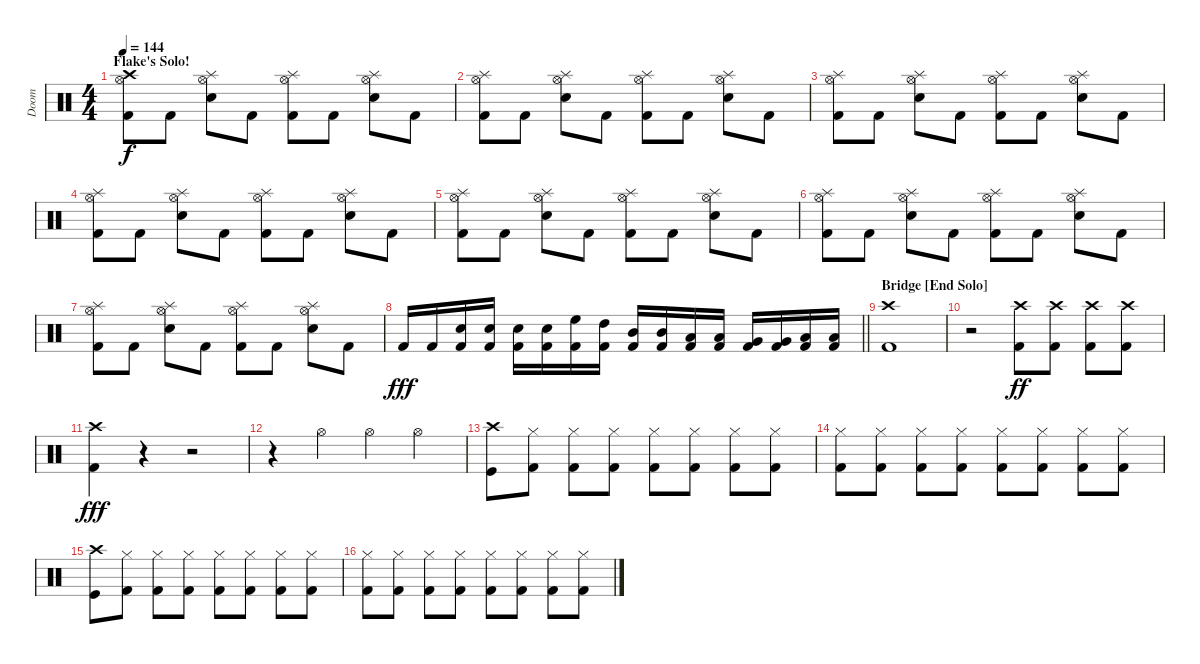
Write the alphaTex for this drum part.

\track ("Doom" "Doom") {instrument percussion}
\staff {score}
\articulation defaults
\ts (4 4)
\section ("" "Flake's Solo!")
\tempo 144
\clef neutral
\ks c
("Kick (hit) 2" "Hi-Hat (open)" "Crash high (hit)").8{dy f} "Kick (hit) 2".8 ("Snare (hit) 2" "Hi-Hat (open)" "Splash (hit)").8 "Kick (hit) 2".8 ("Kick (hit) 2" "Hi-Hat (open)" "Splash (hit)").8 "Kick (hit) 2".8 ("Snare (hit) 2" "Hi-Hat (open)" "Splash (hit)").8 "Kick (hit) 2".8 |
("Kick (hit) 2" "Hi-Hat (open)" "Splash (hit)").8 "Kick (hit) 2".8 ("Snare (hit) 2" "Hi-Hat (open)" "Splash (hit)").8 "Kick (hit) 2".8 ("Kick (hit) 2" "Hi-Hat (open)" "Splash (hit)").8 "Kick (hit) 2".8 ("Snare (hit) 2" "Hi-Hat (open)" "Splash (hit)").8 "Kick (hit) 2".8 |
("Kick (hit) 2" "Hi-Hat (open)" "Splash (hit)").8 "Kick (hit) 2".8 ("Snare (hit) 2" "Hi-Hat (open)" "Splash (hit)").8 "Kick (hit) 2".8 ("Kick (hit) 2" "Hi-Hat (open)" "Splash (hit)").8 "Kick (hit) 2".8 ("Snare (hit) 2" "Hi-Hat (open)" "Splash (hit)").8 "Kick (hit) 2".8 |
("Kick (hit) 2" "Hi-Hat (open)" "Splash (hit)").8 "Kick (hit) 2".8 ("Snare (hit) 2" "Hi-Hat (open)" "Splash (hit)").8 "Kick (hit) 2".8 ("Kick (hit) 2" "Hi-Hat (open)" "Splash (hit)").8 "Kick (hit) 2".8 ("Snare (hit) 2" "Hi-Hat (open)" "Splash (hit)").8 "Kick (hit) 2".8 |
("Kick (hit) 2" "Hi-Hat (open)" "Splash (hit)").8 "Kick (hit) 2".8 ("Snare (hit) 2" "Hi-Hat (open)" "Splash (hit)").8 "Kick (hit) 2".8 ("Kick (hit) 2" "Hi-Hat (open)" "Splash (hit)").8 "Kick (hit) 2".8 ("Snare (hit) 2" "Hi-Hat (open)" "Splash (hit)").8 "Kick (hit) 2".8 |
("Kick (hit) 2" "Hi-Hat (open)" "Splash (hit)").8 "Kick (hit) 2".8 ("Snare (hit) 2" "Hi-Hat (open)" "Splash (hit)").8 "Kick (hit) 2".8 ("Kick (hit) 2" "Hi-Hat (open)" "Splash (hit)").8 "Kick (hit) 2".8 ("Snare (hit) 2" "Hi-Hat (open)" "Splash (hit)").8 "Kick (hit) 2".8 |
("Kick (hit) 2" "Hi-Hat (open)" "Splash (hit)").8 "Kick (hit) 2".8 ("Snare (hit) 2" "Hi-Hat (open)" "Splash (hit)").8 "Kick (hit) 2".8 ("Kick (hit) 2" "Hi-Hat (open)" "Splash (hit)").8 "Kick (hit) 2".8 ("Snare (hit) 2" "Hi-Hat (open)" "Splash (hit)").8 "Kick (hit) 2".8 |
\barLineRight lightlight "Kick (hit) 2".16{dy fff} "Kick (hit) 2".16
("Kick (hit) 2" "Snare (hit) 2").16 ("Kick (hit) 2" "Snare (hit) 2").16 ("Kick (hit) 2" "Snare (hit) 2").16 ("Kick (hit) 2" "Snare (hit) 2").16 ("Kick (hit) 2" "High Floor Tom (hit)").16 ("Kick (hit) 2" "High Tom (hit)").16 ("Kick (hit) 2" "Mid Tom (hit)").16 ("Kick (hit) 2" "Mid Tom (hit)").16 ("Kick (hit) 2" "Low Tom (hit)").16 ("Kick (hit) 2" "Low Tom (hit)").16 ("Kick (hit) 2" "Very Low Tom (hit)").16 ("Very Low Tom (hit)" "Kick (hit) 2").16 ("Kick (hit) 2" "Low Floor Tom (hit)").16 ("Kick (hit) 2" "Low Floor Tom (hit)").16 |
\section ("" "Bridge [End Solo]")
("Kick (hit) 2" "Crash high (hit)").1 |
r.2 ("Kick (hit) 2" "Crash high (hit)").8{dy ff} ("Kick (hit) 2" "Crash high (hit)").8 ("Kick (hit) 2" "Crash high (hit)").8 ("Kick (hit) 2" "Crash high (hit)").8 |
("Kick (hit) 2" "Crash high (hit)").4{dy fff} r.4 r.2 |
r.4 "Hi-Hat (open)".4 "Hi-Hat (open)".4 "Hi-Hat (open)".4 |
("Kick (hit)" "Crash high (hit)").8 ("Hi-Hat (closed)" "Kick (hit) 2").8 ("Hi-Hat (closed)" "Kick (hit) 2").8 ("Hi-Hat (closed)" "Kick (hit) 2").8 ("Hi-Hat (closed)" "Kick (hit) 2").8 ("Hi-Hat (closed)" "Kick (hit) 2").8 ("Hi-Hat (closed)" "Kick (hit) 2").8 ("Hi-Hat (closed)" "Kick (hit) 2").8 |
("Hi-Hat (closed)" "Kick (hit) 2").8 ("Hi-Hat (closed)" "Kick (hit) 2").8 ("Hi-Hat (closed)" "Kick (hit) 2").8 ("Hi-Hat (closed)" "Kick (hit) 2").8 ("Hi-Hat (closed)" "Kick (hit) 2").8 ("Hi-Hat (closed)" "Kick (hit) 2").8 ("Hi-Hat (closed)" "Kick (hit) 2").8 ("Hi-Hat (closed)" "Kick (hit) 2").8 |
("Kick (hit)" "Crash high (hit)").8 ("Hi-Hat (closed)" "Kick (hit) 2").8 ("Hi-Hat (closed)" "Kick (hit) 2").8 ("Hi-Hat (closed)" "Kick (hit) 2").8 ("Hi-Hat (closed)" "Kick (hit) 2").8 ("Hi-Hat (closed)" "Kick (hit) 2").8 ("Hi-Hat (closed)" "Kick (hit) 2").8 ("Hi-Hat (closed)" "Kick (hit) 2").8 |
("Hi-Hat (closed)" "Kick (hit) 2").8 ("Hi-Hat (closed)" "Kick (hit) 2").8 ("Hi-Hat (closed)" "Kick (hit) 2").8 ("Hi-Hat (closed)" "Kick (hit) 2").8 ("Hi-Hat (closed)" "Kick (hit) 2").8 ("Hi-Hat (closed)" "Kick (hit) 2").8 ("Hi-Hat (closed)" "Kick (hit) 2").8 ("Hi-Hat (closed)" "Kick (hit) 2").8
